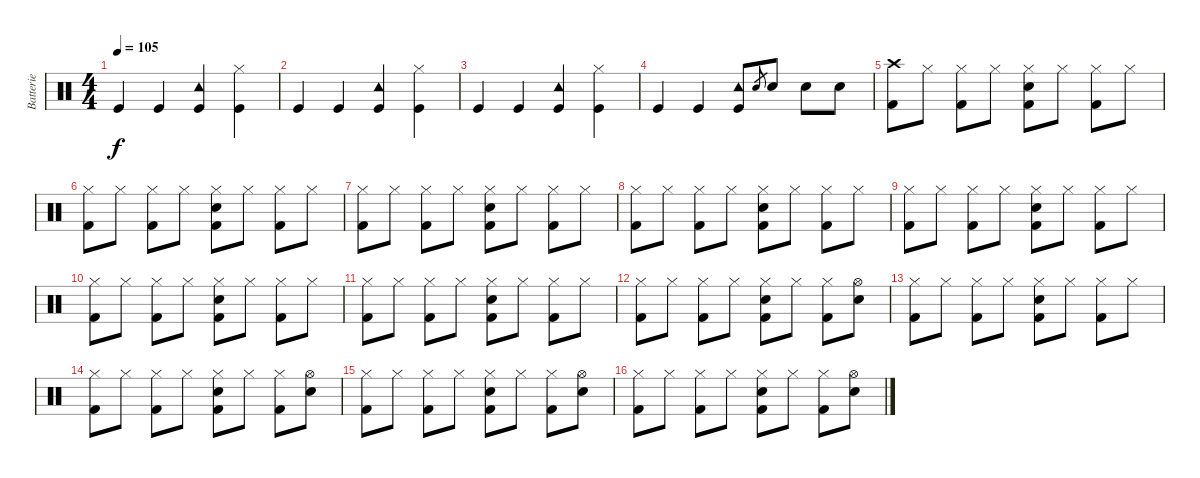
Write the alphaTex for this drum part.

\track ("Batterie" "Batterie") {instrument percussion}
\staff {score}
\articulation defaults
\ts (4 4)
\tempo 105
\clef neutral
\ks c "Kick (hit)".4{dy f} "Kick (hit)".4
("Tambourine (hit)" "Kick (hit)").4 ("Hi-Hat (closed)" "Kick (hit)").4 |
"Kick (hit)".4 "Kick (hit)".4 ("Tambourine (hit)" "Kick (hit)").4 ("Hi-Hat (closed)" "Kick (hit)").4 |
"Kick (hit)".4 "Kick (hit)".4 ("Tambourine (hit)" "Kick (hit)").4 ("Hi-Hat (closed)" "Kick (hit)").4 |
"Kick (hit)".4 "Kick (hit)".4 ("Tambourine (hit)" "Kick (hit)").8 "Snare (hit) 2".8{gr} "Snare (hit) 2".8 "Snare (hit) 2".8 "Snare (hit) 2".8 |
("Crash high (hit)" "Kick (hit) 2").8 "Hi-Hat (closed)".8 ("Hi-Hat (closed)" "Kick (hit) 2").8 "Hi-Hat (closed)".8 ("Hi-Hat (closed)" "Snare (hit) 2" "Kick (hit) 2").8 "Hi-Hat (closed)".8 ("Hi-Hat (closed)" "Kick (hit) 2").8 "Hi-Hat (closed)".8 |
("Hi-Hat (closed)" "Kick (hit) 2").8 "Hi-Hat (closed)".8 ("Hi-Hat (closed)" "Kick (hit) 2").8 "Hi-Hat (closed)".8 ("Hi-Hat (closed)" "Snare (hit) 2" "Kick (hit) 2").8 "Hi-Hat (closed)".8 ("Hi-Hat (closed)" "Kick (hit) 2").8 "Hi-Hat (closed)".8 |
("Hi-Hat (closed)" "Kick (hit) 2").8 "Hi-Hat (closed)".8 ("Hi-Hat (closed)" "Kick (hit) 2").8 "Hi-Hat (closed)".8 ("Hi-Hat (closed)" "Snare (hit) 2" "Kick (hit) 2").8 "Hi-Hat (closed)".8 ("Hi-Hat (closed)" "Kick (hit) 2").8 "Hi-Hat (closed)".8 |
("Hi-Hat (closed)" "Kick (hit) 2").8 "Hi-Hat (closed)".8 ("Hi-Hat (closed)" "Kick (hit) 2").8 "Hi-Hat (closed)".8 ("Hi-Hat (closed)" "Snare (hit) 2" "Kick (hit) 2").8 "Hi-Hat (closed)".8 ("Hi-Hat (closed)" "Kick (hit) 2").8 "Hi-Hat (closed)".8 |
("Hi-Hat (closed)" "Kick (hit) 2").8 "Hi-Hat (closed)".8 ("Hi-Hat (closed)" "Kick (hit) 2").8 "Hi-Hat (closed)".8 ("Hi-Hat (closed)" "Snare (hit) 2" "Kick (hit) 2").8 "Hi-Hat (closed)".8 ("Hi-Hat (closed)" "Kick (hit) 2").8 "Hi-Hat (closed)".8 |
("Hi-Hat (closed)" "Kick (hit) 2").8 "Hi-Hat (closed)".8 ("Hi-Hat (closed)" "Kick (hit) 2").8 "Hi-Hat (closed)".8 ("Hi-Hat (closed)" "Snare (hit) 2" "Kick (hit) 2").8 "Hi-Hat (closed)".8 ("Hi-Hat (closed)" "Kick (hit) 2").8 "Hi-Hat (closed)".8 |
("Hi-Hat (closed)" "Kick (hit) 2").8 "Hi-Hat (closed)".8 ("Hi-Hat (closed)" "Kick (hit) 2").8 "Hi-Hat (closed)".8 ("Hi-Hat (closed)" "Snare (hit) 2" "Kick (hit) 2").8 "Hi-Hat (closed)".8 ("Hi-Hat (closed)" "Kick (hit) 2").8 "Hi-Hat (closed)".8 |
("Hi-Hat (closed)" "Kick (hit) 2").8 "Hi-Hat (closed)".8 ("Hi-Hat (closed)" "Kick (hit) 2").8 "Hi-Hat (closed)".8 ("Hi-Hat (closed)" "Snare (hit) 2" "Kick (hit) 2").8 "Hi-Hat (closed)".8 ("Hi-Hat (closed)" "Kick (hit) 2").8 ("Hi-Hat (open)" "Snare (hit) 2").8 |
("Hi-Hat (closed)" "Kick (hit) 2").8 "Hi-Hat (closed)".8 ("Hi-Hat (closed)" "Kick (hit) 2").8 "Hi-Hat (closed)".8 ("Hi-Hat (closed)" "Snare (hit) 2" "Kick (hit) 2").8 "Hi-Hat (closed)".8 ("Hi-Hat (closed)" "Kick (hit) 2").8 "Hi-Hat (closed)".8 |
("Hi-Hat (closed)" "Kick (hit) 2").8 "Hi-Hat (closed)".8 ("Hi-Hat (closed)" "Kick (hit) 2").8 "Hi-Hat (closed)".8 ("Hi-Hat (closed)" "Snare (hit) 2" "Kick (hit) 2").8 "Hi-Hat (closed)".8 ("Hi-Hat (closed)" "Kick (hit) 2").8 ("Hi-Hat (open)" "Snare (hit) 2").8 |
("Hi-Hat (closed)" "Kick (hit) 2").8 "Hi-Hat (closed)".8 ("Hi-Hat (closed)" "Kick (hit) 2").8 "Hi-Hat (closed)".8 ("Hi-Hat (closed)" "Snare (hit) 2" "Kick (hit) 2").8 "Hi-Hat (closed)".8 ("Hi-Hat (closed)" "Kick (hit) 2").8 ("Hi-Hat (open)" "Snare (hit) 2").8 |
("Hi-Hat (closed)" "Kick (hit) 2").8 "Hi-Hat (closed)".8 ("Hi-Hat (closed)" "Kick (hit) 2").8 "Hi-Hat (closed)".8 ("Hi-Hat (closed)" "Snare (hit) 2" "Kick (hit) 2").8 "Hi-Hat (closed)".8 ("Hi-Hat (closed)" "Kick (hit) 2").8 ("Hi-Hat (open)" "Snare (hit) 2").8
